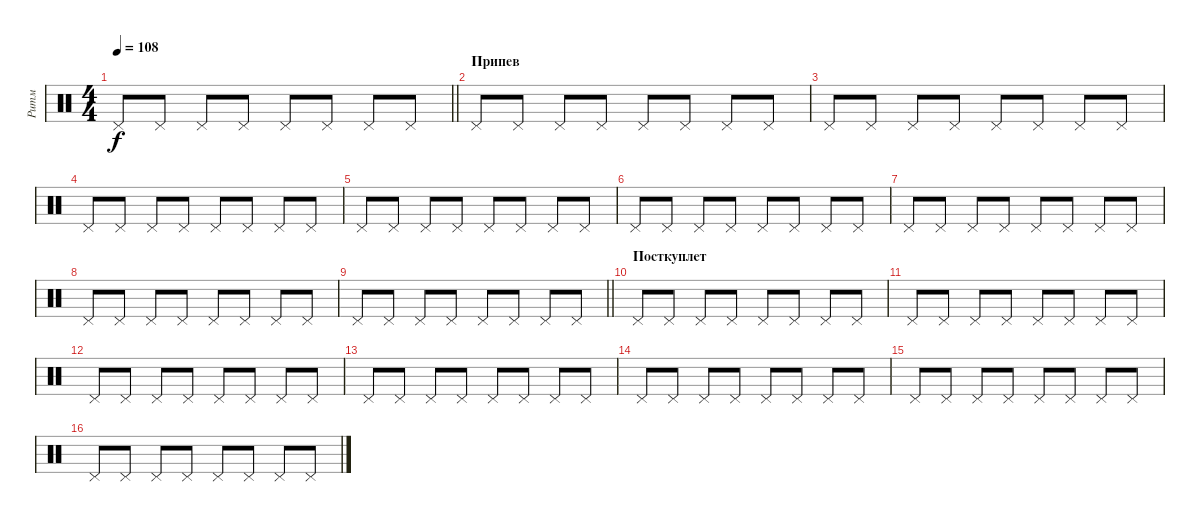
\track ("Ритм" "Ритм") {instrument percussion}
\staff {score}
\articulation defaults
\ts (4 4)
\tempo 108
\clef neutral
\barLineRight lightlight
\ks c "Pedal Hi-Hat (hit)".8{dy f} "Pedal Hi-Hat (hit)".8 "Pedal Hi-Hat (hit)".8 "Pedal Hi-Hat (hit)".8 "Pedal Hi-Hat (hit)".8 "Pedal Hi-Hat (hit)".8 "Pedal Hi-Hat (hit)".8 "Pedal Hi-Hat (hit)".8
|
\section ("" "Припев")
"Pedal Hi-Hat (hit)".8 "Pedal Hi-Hat (hit)".8 "Pedal Hi-Hat (hit)".8 "Pedal Hi-Hat (hit)".8 "Pedal Hi-Hat (hit)".8 "Pedal Hi-Hat (hit)".8 "Pedal Hi-Hat (hit)".8 "Pedal Hi-Hat (hit)".8 |
"Pedal Hi-Hat (hit)".8 "Pedal Hi-Hat (hit)".8 "Pedal Hi-Hat (hit)".8 "Pedal Hi-Hat (hit)".8 "Pedal Hi-Hat (hit)".8 "Pedal Hi-Hat (hit)".8 "Pedal Hi-Hat (hit)".8 "Pedal Hi-Hat (hit)".8 |
"Pedal Hi-Hat (hit)".8 "Pedal Hi-Hat (hit)".8 "Pedal Hi-Hat (hit)".8 "Pedal Hi-Hat (hit)".8 "Pedal Hi-Hat (hit)".8 "Pedal Hi-Hat (hit)".8 "Pedal Hi-Hat (hit)".8 "Pedal Hi-Hat (hit)".8 |
"Pedal Hi-Hat (hit)".8 "Pedal Hi-Hat (hit)".8 "Pedal Hi-Hat (hit)".8 "Pedal Hi-Hat (hit)".8 "Pedal Hi-Hat (hit)".8 "Pedal Hi-Hat (hit)".8 "Pedal Hi-Hat (hit)".8 "Pedal Hi-Hat (hit)".8 |
"Pedal Hi-Hat (hit)".8 "Pedal Hi-Hat (hit)".8 "Pedal Hi-Hat (hit)".8 "Pedal Hi-Hat (hit)".8 "Pedal Hi-Hat (hit)".8 "Pedal Hi-Hat (hit)".8 "Pedal Hi-Hat (hit)".8 "Pedal Hi-Hat (hit)".8 |
"Pedal Hi-Hat (hit)".8 "Pedal Hi-Hat (hit)".8 "Pedal Hi-Hat (hit)".8 "Pedal Hi-Hat (hit)".8 "Pedal Hi-Hat (hit)".8 "Pedal Hi-Hat (hit)".8 "Pedal Hi-Hat (hit)".8 "Pedal Hi-Hat (hit)".8 |
"Pedal Hi-Hat (hit)".8 "Pedal Hi-Hat (hit)".8 "Pedal Hi-Hat (hit)".8 "Pedal Hi-Hat (hit)".8 "Pedal Hi-Hat (hit)".8 "Pedal Hi-Hat (hit)".8 "Pedal Hi-Hat (hit)".8 "Pedal Hi-Hat (hit)".8 |
\barLineRight lightlight "Pedal Hi-Hat (hit)".8 "Pedal Hi-Hat (hit)".8 "Pedal Hi-Hat (hit)".8 "Pedal Hi-Hat (hit)".8 "Pedal Hi-Hat (hit)".8 "Pedal Hi-Hat (hit)".8 "Pedal Hi-Hat (hit)".8 "Pedal Hi-Hat (hit)".8
|
\section ("" "Посткуплет")
"Pedal Hi-Hat (hit)".8 "Pedal Hi-Hat (hit)".8 "Pedal Hi-Hat (hit)".8 "Pedal Hi-Hat (hit)".8 "Pedal Hi-Hat (hit)".8 "Pedal Hi-Hat (hit)".8 "Pedal Hi-Hat (hit)".8 "Pedal Hi-Hat (hit)".8 |
"Pedal Hi-Hat (hit)".8 "Pedal Hi-Hat (hit)".8 "Pedal Hi-Hat (hit)".8 "Pedal Hi-Hat (hit)".8 "Pedal Hi-Hat (hit)".8 "Pedal Hi-Hat (hit)".8 "Pedal Hi-Hat (hit)".8 "Pedal Hi-Hat (hit)".8 |
"Pedal Hi-Hat (hit)".8 "Pedal Hi-Hat (hit)".8 "Pedal Hi-Hat (hit)".8 "Pedal Hi-Hat (hit)".8 "Pedal Hi-Hat (hit)".8 "Pedal Hi-Hat (hit)".8 "Pedal Hi-Hat (hit)".8 "Pedal Hi-Hat (hit)".8 |
"Pedal Hi-Hat (hit)".8 "Pedal Hi-Hat (hit)".8 "Pedal Hi-Hat (hit)".8 "Pedal Hi-Hat (hit)".8 "Pedal Hi-Hat (hit)".8 "Pedal Hi-Hat (hit)".8 "Pedal Hi-Hat (hit)".8 "Pedal Hi-Hat (hit)".8 |
"Pedal Hi-Hat (hit)".8 "Pedal Hi-Hat (hit)".8 "Pedal Hi-Hat (hit)".8 "Pedal Hi-Hat (hit)".8 "Pedal Hi-Hat (hit)".8 "Pedal Hi-Hat (hit)".8 "Pedal Hi-Hat (hit)".8 "Pedal Hi-Hat (hit)".8 |
"Pedal Hi-Hat (hit)".8 "Pedal Hi-Hat (hit)".8 "Pedal Hi-Hat (hit)".8 "Pedal Hi-Hat (hit)".8 "Pedal Hi-Hat (hit)".8 "Pedal Hi-Hat (hit)".8 "Pedal Hi-Hat (hit)".8 "Pedal Hi-Hat (hit)".8 |
"Pedal Hi-Hat (hit)".8 "Pedal Hi-Hat (hit)".8 "Pedal Hi-Hat (hit)".8 "Pedal Hi-Hat (hit)".8 "Pedal Hi-Hat (hit)".8 "Pedal Hi-Hat (hit)".8 "Pedal Hi-Hat (hit)".8 "Pedal Hi-Hat (hit)".8
